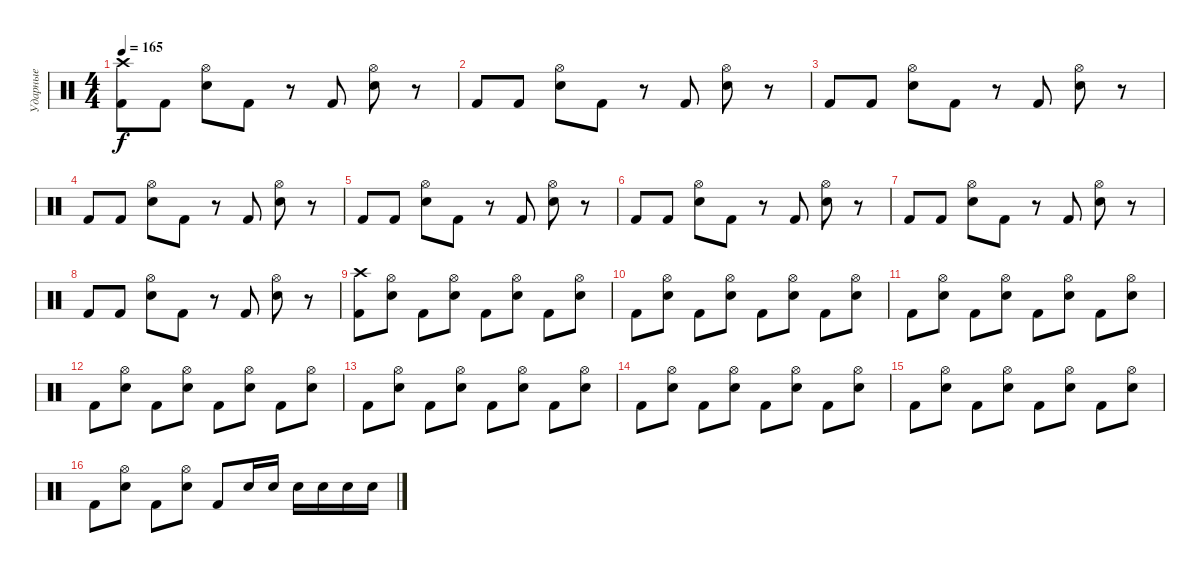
\track ("Ударные" "Ударные") {instrument percussion}
\staff {score}
\articulation defaults
\ts (4 4)
\tempo 165
\clef neutral
\ks c
("Crash high (hit)" "Kick (hit) 2").8{dy f} "Kick (hit) 2".8 ("Hi-Hat (open)" "Electric Snare (hit)").8 "Kick (hit) 2".8 r.8 "Kick (hit) 2".8 ("Hi-Hat (open)" "Electric Snare (hit)").8 r.8 |
"Kick (hit) 2".8 "Kick (hit) 2".8 ("Hi-Hat (open)" "Electric Snare (hit)").8 "Kick (hit) 2".8 r.8 "Kick (hit) 2".8 ("Hi-Hat (open)" "Electric Snare (hit)").8 r.8 |
"Kick (hit) 2".8 "Kick (hit) 2".8 ("Hi-Hat (open)" "Electric Snare (hit)").8 "Kick (hit) 2".8 r.8 "Kick (hit) 2".8 ("Hi-Hat (open)" "Electric Snare (hit)").8 r.8 |
"Kick (hit) 2".8 "Kick (hit) 2".8 ("Hi-Hat (open)" "Electric Snare (hit)").8 "Kick (hit) 2".8 r.8 "Kick (hit) 2".8 ("Hi-Hat (open)" "Electric Snare (hit)").8 r.8 |
"Kick (hit) 2".8 "Kick (hit) 2".8 ("Hi-Hat (open)" "Electric Snare (hit)").8 "Kick (hit) 2".8 r.8 "Kick (hit) 2".8 ("Hi-Hat (open)" "Electric Snare (hit)").8 r.8 |
"Kick (hit) 2".8 "Kick (hit) 2".8 ("Hi-Hat (open)" "Electric Snare (hit)").8 "Kick (hit) 2".8 r.8 "Kick (hit) 2".8 ("Hi-Hat (open)" "Electric Snare (hit)").8 r.8 |
"Kick (hit) 2".8 "Kick (hit) 2".8 ("Hi-Hat (open)" "Electric Snare (hit)").8 "Kick (hit) 2".8 r.8 "Kick (hit) 2".8 ("Hi-Hat (open)" "Electric Snare (hit)").8 r.8 |
"Kick (hit) 2".8 "Kick (hit) 2".8 ("Hi-Hat (open)" "Electric Snare (hit)").8 "Kick (hit) 2".8 r.8 "Kick (hit) 2".8 ("Hi-Hat (open)" "Electric Snare (hit)").8 r.8 |
("Crash high (hit)" "Kick (hit) 2").8 ("Hi-Hat (open)" "Electric Snare (hit)").8 "Kick (hit) 2".8 ("Hi-Hat (open)" "Electric Snare (hit)").8 "Kick (hit) 2".8 ("Hi-Hat (open)" "Electric Snare (hit)").8 "Kick (hit) 2".8 ("Hi-Hat (open)" "Electric Snare (hit)").8 |
"Kick (hit) 2".8 ("Hi-Hat (open)" "Electric Snare (hit)").8 "Kick (hit) 2".8 ("Hi-Hat (open)" "Electric Snare (hit)").8 "Kick (hit) 2".8 ("Hi-Hat (open)" "Electric Snare (hit)").8 "Kick (hit) 2".8 ("Hi-Hat (open)" "Electric Snare (hit)").8 |
"Kick (hit) 2".8 ("Hi-Hat (open)" "Electric Snare (hit)").8 "Kick (hit) 2".8 ("Hi-Hat (open)" "Electric Snare (hit)").8 "Kick (hit) 2".8 ("Hi-Hat (open)" "Electric Snare (hit)").8 "Kick (hit) 2".8 ("Hi-Hat (open)" "Electric Snare (hit)").8 |
"Kick (hit) 2".8 ("Hi-Hat (open)" "Electric Snare (hit)").8 "Kick (hit) 2".8 ("Hi-Hat (open)" "Electric Snare (hit)").8 "Kick (hit) 2".8 ("Hi-Hat (open)" "Electric Snare (hit)").8 "Kick (hit) 2".8 ("Hi-Hat (open)" "Electric Snare (hit)").8 |
"Kick (hit) 2".8 ("Hi-Hat (open)" "Electric Snare (hit)").8 "Kick (hit) 2".8 ("Hi-Hat (open)" "Electric Snare (hit)").8 "Kick (hit) 2".8 ("Hi-Hat (open)" "Electric Snare (hit)").8 "Kick (hit) 2".8 ("Hi-Hat (open)" "Electric Snare (hit)").8 |
"Kick (hit) 2".8 ("Hi-Hat (open)" "Electric Snare (hit)").8 "Kick (hit) 2".8 ("Hi-Hat (open)" "Electric Snare (hit)").8 "Kick (hit) 2".8 ("Hi-Hat (open)" "Electric Snare (hit)").8 "Kick (hit) 2".8 ("Hi-Hat (open)" "Electric Snare (hit)").8 |
"Kick (hit) 2".8 ("Hi-Hat (open)" "Electric Snare (hit)").8 "Kick (hit) 2".8 ("Hi-Hat (open)" "Electric Snare (hit)").8 "Kick (hit) 2".8 ("Hi-Hat (open)" "Electric Snare (hit)").8 "Kick (hit) 2".8 ("Hi-Hat (open)" "Electric Snare (hit)").8 |
"Kick (hit) 2".8 ("Hi-Hat (open)" "Electric Snare (hit)").8 "Kick (hit) 2".8 ("Hi-Hat (open)" "Electric Snare (hit)").8 "Kick (hit) 2".8 "Electric Snare (hit)".16 "Electric Snare (hit)".16 "Electric Snare (hit)".16 "Electric Snare (hit)".16 "Electric Snare (hit)".16 "Electric Snare (hit)".16
